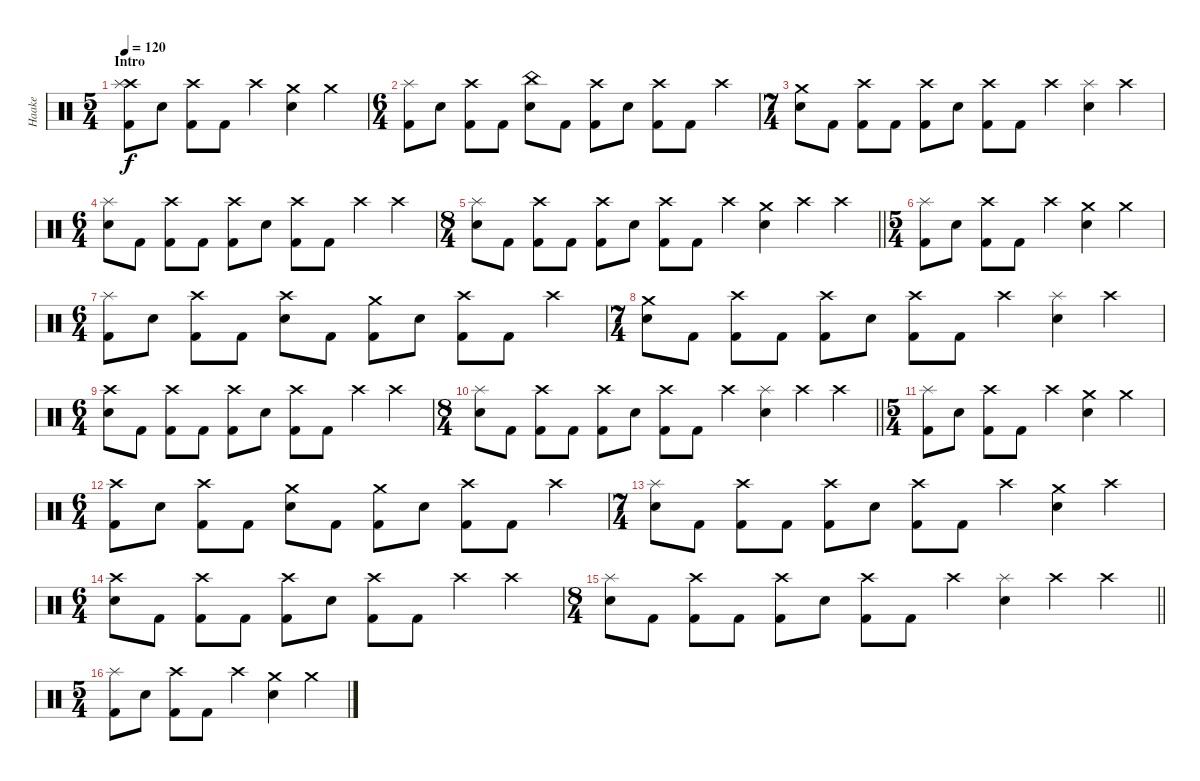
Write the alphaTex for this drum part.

\track ("Haake" "Haake") {instrument percussion}
\staff {score}
\articulation defaults
\ts (5 4)
\section ("" "Intro")
\tempo 120
\clef neutral
\ks c
("Crash high (hit)" "Splash (hit)" "Kick (hit) 2").8{dy f} "Electric Snare (hit)".8 ("Crash high (hit)" "Kick (hit) 2").8 "Kick (hit) 2".8 "Crash high (hit)".4 ("Crash medium (hit)" "Electric Snare (hit)").4 "Crash medium (hit)".4 |
\ts (6 4)
("Splash (hit)" "Kick (hit) 2").8 "Electric Snare (hit)".8 ("Crash high (hit)" "Kick (hit) 2").8 "Kick (hit) 2".8 ("China (hit)" "Electric Snare (hit)").8 "Kick (hit) 2".8 ("Crash high (hit)" "Kick (hit) 2").8 "Electric Snare (hit)".8 ("Crash high (hit)" "Kick (hit) 2").8 "Kick (hit) 2".8 "Crash high (hit)".4 |
\ts (7 4)
("Crash medium (hit)" "Electric Snare (hit)").8 "Kick (hit) 2".8 ("Crash high (hit)" "Kick (hit) 2").8 "Kick (hit) 2".8 ("Crash high (hit)" "Kick (hit) 2").8 "Electric Snare (hit)".8 ("Crash high (hit)" "Kick (hit) 2").8 "Kick (hit) 2".8 "Crash high (hit)".4 ("Splash (hit)" "Electric Snare (hit)").4 "Crash high (hit)".4 |
\ts (6 4)
("Splash (hit)" "Electric Snare (hit)").8 "Kick (hit) 2".8 ("Crash high (hit)" "Kick (hit) 2").8 "Kick (hit) 2".8 ("Crash high (hit)" "Kick (hit) 2").8 "Electric Snare (hit)".8 ("Crash high (hit)" "Kick (hit) 2").8 "Kick (hit) 2".8 "Crash high (hit)".4 "Crash high (hit)".4 |
\ts (8 4)
\barLineRight lightlight
("Splash (hit)" "Electric Snare (hit)").8 "Kick (hit) 2".8 ("Crash high (hit)" "Kick (hit) 2").8 "Kick (hit) 2".8 ("Crash high (hit)" "Kick (hit) 2").8 "Electric Snare (hit)".8 ("Crash high (hit)" "Kick (hit) 2").8 "Kick (hit) 2".8 "Crash high (hit)".4 ("Crash medium (hit)" "Electric Snare (hit)").4 "Crash high (hit)".4 "Crash high (hit)".4 |
\ts (5 4)
("Splash (hit)" "Kick (hit) 2").8 "Electric Snare (hit)".8 ("Crash high (hit)" "Kick (hit) 2").8 "Kick (hit) 2".8 "Crash high (hit)".4 ("Crash medium (hit)" "Electric Snare (hit)").4 "Crash medium (hit)".4 |
\ts (6 4)
("Splash (hit)" "Kick (hit) 2").8 "Electric Snare (hit)".8 ("Crash high (hit)" "Kick (hit) 2").8 "Kick (hit) 2".8 ("Crash high (hit)" "Electric Snare (hit)").8 "Kick (hit) 2".8 ("Crash medium (hit)" "Kick (hit) 2").8 "Electric Snare (hit)".8 ("Crash high (hit)" "Kick (hit) 2").8 "Kick (hit) 2".8 "Crash high (hit)".4 |
\ts (7 4)
("Crash medium (hit)" "Electric Snare (hit)").8 "Kick (hit) 2".8 ("Crash high (hit)" "Kick (hit) 2").8 "Kick (hit) 2".8 ("Crash high (hit)" "Kick (hit) 2").8 "Electric Snare (hit)".8 ("Crash high (hit)" "Kick (hit) 2").8 "Kick (hit) 2".8 "Crash high (hit)".4 ("Splash (hit)" "Electric Snare (hit)").4 "Crash high (hit)".4 |
\ts (6 4)
("Crash high (hit)" "Electric Snare (hit)").8 "Kick (hit) 2".8 ("Crash high (hit)" "Kick (hit) 2").8 "Kick (hit) 2".8 ("Crash high (hit)" "Kick (hit) 2").8 "Electric Snare (hit)".8 ("Crash high (hit)" "Kick (hit) 2").8 "Kick (hit) 2".8 "Crash high (hit)".4 "Crash high (hit)".4 |
\ts (8 4)
\barLineRight lightlight
("Splash (hit)" "Electric Snare (hit)").8 "Kick (hit) 2".8 ("Crash high (hit)" "Kick (hit) 2").8 "Kick (hit) 2".8 ("Crash high (hit)" "Kick (hit) 2").8 "Electric Snare (hit)".8 ("Crash high (hit)" "Kick (hit) 2").8 "Kick (hit) 2".8 "Crash high (hit)".4 ("Splash (hit)" "Electric Snare (hit)").4 "Crash high (hit)".4 "Crash high (hit)".4 |
\ts (5 4)
("Splash (hit)" "Kick (hit) 2").8 "Electric Snare (hit)".8 ("Crash high (hit)" "Kick (hit) 2").8 "Kick (hit) 2".8 "Crash high (hit)".4 ("Crash medium (hit)" "Electric Snare (hit)").4 "Crash medium (hit)".4 |
\ts (6 4)
("Crash high (hit)" "Kick (hit) 2").8 "Electric Snare (hit)".8 ("Crash high (hit)" "Kick (hit) 2").8 "Kick (hit) 2".8 ("Crash medium (hit)" "Electric Snare (hit)").8 "Kick (hit) 2".8 ("Crash medium (hit)" "Kick (hit) 2").8 "Electric Snare (hit)".8 ("Crash high (hit)" "Kick (hit) 2").8 "Kick (hit) 2".8 "Crash high (hit)".4 |
\ts (7 4)
("Splash (hit)" "Electric Snare (hit)").8 "Kick (hit) 2".8 ("Crash high (hit)" "Kick (hit) 2").8 "Kick (hit) 2".8 ("Crash high (hit)" "Kick (hit) 2").8 "Electric Snare (hit)".8 ("Crash high (hit)" "Kick (hit) 2").8 "Kick (hit) 2".8 "Crash high (hit)".4 ("Crash medium (hit)" "Electric Snare (hit)").4 "Crash high (hit)".4 |
\ts (6 4)
("Crash high (hit)" "Electric Snare (hit)").8 "Kick (hit) 2".8 ("Crash high (hit)" "Kick (hit) 2").8 "Kick (hit) 2".8 ("Crash high (hit)" "Kick (hit) 2").8 "Electric Snare (hit)".8 ("Crash high (hit)" "Kick (hit) 2").8 "Kick (hit) 2".8 "Crash high (hit)".4 "Crash high (hit)".4 |
\ts (8 4)
\barLineRight lightlight
("Splash (hit)" "Electric Snare (hit)").8 "Kick (hit) 2".8 ("Crash high (hit)" "Kick (hit) 2").8 "Kick (hit) 2".8 ("Crash high (hit)" "Kick (hit) 2").8 "Electric Snare (hit)".8 ("Crash high (hit)" "Kick (hit) 2").8 "Kick (hit) 2".8 "Crash high (hit)".4 ("Splash (hit)" "Electric Snare (hit)").4 "Crash high (hit)".4 "Crash high (hit)".4 |
\ts (5 4)
("Splash (hit)" "Kick (hit) 2").8 "Electric Snare (hit)".8 ("Crash high (hit)" "Kick (hit) 2").8 "Kick (hit) 2".8 "Crash high (hit)".4 ("Crash medium (hit)" "Electric Snare (hit)").4 "Crash medium (hit)".4
